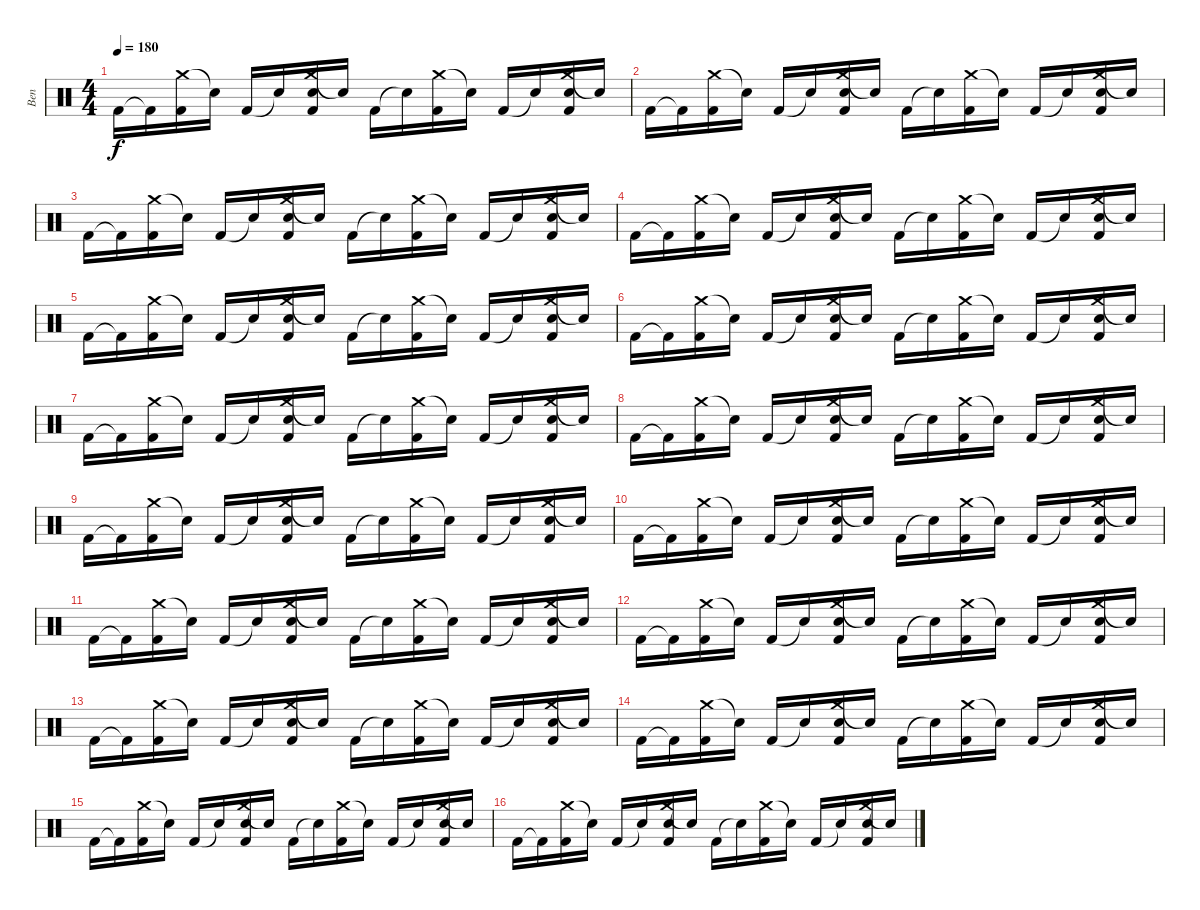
\track ("Ben" "Ben") {instrument percussion}
\staff {score}
\articulation defaults
\ts (4 4)
\tempo 180
\clef neutral
\ks c "Kick (hit) 2".16{dy f} "Kick (hit) 2"{t}.16
("Crash medium (hit)" "Kick (hit) 2").16 "Snare (hit)"{t}.16 "Kick (hit) 2".16 "Snare (hit)"{t}.16 ("Crash medium (hit)" "Electric Snare (hit)" "Kick (hit) 2").16 "Snare (hit)"{t}.16 "Kick (hit) 2".16 "Snare (hit)"{t}.16 ("Crash medium (hit)" "Kick (hit) 2").16 "Snare (hit)"{t}.16 "Kick (hit) 2".16 "Snare (hit)"{t}.16 ("Crash medium (hit)" "Electric Snare (hit)" "Kick (hit) 2").16 "Snare (hit)"{t}.16 |
"Kick (hit) 2".16 "Kick (hit) 2"{t}.16 ("Crash medium (hit)" "Kick (hit) 2").16 "Snare (hit)"{t}.16 "Kick (hit) 2".16 "Snare (hit)"{t}.16 ("Crash medium (hit)" "Electric Snare (hit)" "Kick (hit) 2").16 "Snare (hit)"{t}.16 "Kick (hit) 2".16 "Snare (hit)"{t}.16 ("Crash medium (hit)" "Kick (hit) 2").16 "Snare (hit)"{t}.16 "Kick (hit) 2".16 "Snare (hit)"{t}.16 ("Crash medium (hit)" "Electric Snare (hit)" "Kick (hit) 2").16 "Snare (hit)"{t}.16 |
"Kick (hit) 2".16 "Kick (hit) 2"{t}.16 ("Crash medium (hit)" "Kick (hit) 2").16 "Snare (hit)"{t}.16 "Kick (hit) 2".16 "Snare (hit)"{t}.16 ("Crash medium (hit)" "Electric Snare (hit)" "Kick (hit) 2").16 "Snare (hit)"{t}.16 "Kick (hit) 2".16 "Snare (hit)"{t}.16 ("Crash medium (hit)" "Kick (hit) 2").16 "Snare (hit)"{t}.16 "Kick (hit) 2".16 "Snare (hit)"{t}.16 ("Crash medium (hit)" "Electric Snare (hit)" "Kick (hit) 2").16 "Snare (hit)"{t}.16 |
"Kick (hit) 2".16 "Kick (hit) 2"{t}.16 ("Crash medium (hit)" "Kick (hit) 2").16 "Snare (hit)"{t}.16 "Kick (hit) 2".16 "Snare (hit)"{t}.16 ("Crash medium (hit)" "Electric Snare (hit)" "Kick (hit) 2").16 "Snare (hit)"{t}.16 "Kick (hit) 2".16 "Snare (hit)"{t}.16 ("Crash medium (hit)" "Kick (hit) 2").16 "Snare (hit)"{t}.16 "Kick (hit) 2".16 "Snare (hit)"{t}.16 ("Crash medium (hit)" "Electric Snare (hit)" "Kick (hit) 2").16 "Snare (hit)"{t}.16 |
"Kick (hit) 2".16 "Kick (hit) 2"{t}.16 ("Crash medium (hit)" "Kick (hit) 2").16 "Snare (hit)"{t}.16 "Kick (hit) 2".16 "Snare (hit)"{t}.16 ("Crash medium (hit)" "Electric Snare (hit)" "Kick (hit) 2").16 "Snare (hit)"{t}.16 "Kick (hit) 2".16 "Snare (hit)"{t}.16 ("Crash medium (hit)" "Kick (hit) 2").16 "Snare (hit)"{t}.16 "Kick (hit) 2".16 "Snare (hit)"{t}.16 ("Crash medium (hit)" "Electric Snare (hit)" "Kick (hit) 2").16 "Snare (hit)"{t}.16 |
"Kick (hit) 2".16 "Kick (hit) 2"{t}.16 ("Crash medium (hit)" "Kick (hit) 2").16 "Snare (hit)"{t}.16 "Kick (hit) 2".16 "Snare (hit)"{t}.16 ("Crash medium (hit)" "Electric Snare (hit)" "Kick (hit) 2").16 "Snare (hit)"{t}.16 "Kick (hit) 2".16 "Snare (hit)"{t}.16 ("Crash medium (hit)" "Kick (hit) 2").16 "Snare (hit)"{t}.16 "Kick (hit) 2".16 "Snare (hit)"{t}.16 ("Crash medium (hit)" "Electric Snare (hit)" "Kick (hit) 2").16 "Snare (hit)"{t}.16 |
"Kick (hit) 2".16 "Kick (hit) 2"{t}.16 ("Crash medium (hit)" "Kick (hit) 2").16 "Snare (hit)"{t}.16 "Kick (hit) 2".16 "Snare (hit)"{t}.16 ("Crash medium (hit)" "Electric Snare (hit)" "Kick (hit) 2").16 "Snare (hit)"{t}.16 "Kick (hit) 2".16 "Snare (hit)"{t}.16 ("Crash medium (hit)" "Kick (hit) 2").16 "Snare (hit)"{t}.16 "Kick (hit) 2".16 "Snare (hit)"{t}.16 ("Crash medium (hit)" "Electric Snare (hit)" "Kick (hit) 2").16 "Snare (hit)"{t}.16 |
"Kick (hit) 2".16 "Kick (hit) 2"{t}.16 ("Crash medium (hit)" "Kick (hit) 2").16 "Snare (hit)"{t}.16 "Kick (hit) 2".16 "Snare (hit)"{t}.16 ("Crash medium (hit)" "Electric Snare (hit)" "Kick (hit) 2").16 "Snare (hit)"{t}.16 "Kick (hit) 2".16 "Snare (hit)"{t}.16 ("Crash medium (hit)" "Kick (hit) 2").16 "Snare (hit)"{t}.16 "Kick (hit) 2".16 "Snare (hit)"{t}.16 ("Crash medium (hit)" "Electric Snare (hit)" "Kick (hit) 2").16 "Snare (hit)"{t}.16 |
"Kick (hit) 2".16 "Kick (hit) 2"{t}.16 ("Crash medium (hit)" "Kick (hit) 2").16 "Snare (hit)"{t}.16 "Kick (hit) 2".16 "Snare (hit)"{t}.16 ("Crash medium (hit)" "Electric Snare (hit)" "Kick (hit) 2").16 "Snare (hit)"{t}.16 "Kick (hit) 2".16 "Snare (hit)"{t}.16 ("Crash medium (hit)" "Kick (hit) 2").16 "Snare (hit)"{t}.16 "Kick (hit) 2".16 "Snare (hit)"{t}.16 ("Crash medium (hit)" "Electric Snare (hit)" "Kick (hit) 2").16 "Snare (hit)"{t}.16 |
"Kick (hit) 2".16 "Kick (hit) 2"{t}.16 ("Crash medium (hit)" "Kick (hit) 2").16 "Snare (hit)"{t}.16 "Kick (hit) 2".16 "Snare (hit)"{t}.16 ("Crash medium (hit)" "Electric Snare (hit)" "Kick (hit) 2").16 "Snare (hit)"{t}.16 "Kick (hit) 2".16 "Snare (hit)"{t}.16 ("Crash medium (hit)" "Kick (hit) 2").16 "Snare (hit)"{t}.16 "Kick (hit) 2".16 "Snare (hit)"{t}.16 ("Crash medium (hit)" "Electric Snare (hit)" "Kick (hit) 2").16 "Snare (hit)"{t}.16 |
"Kick (hit) 2".16 "Kick (hit) 2"{t}.16 ("Crash medium (hit)" "Kick (hit) 2").16 "Snare (hit)"{t}.16 "Kick (hit) 2".16 "Snare (hit)"{t}.16 ("Crash medium (hit)" "Electric Snare (hit)" "Kick (hit) 2").16 "Snare (hit)"{t}.16 "Kick (hit) 2".16 "Snare (hit)"{t}.16 ("Crash medium (hit)" "Kick (hit) 2").16 "Snare (hit)"{t}.16 "Kick (hit) 2".16 "Snare (hit)"{t}.16 ("Crash medium (hit)" "Electric Snare (hit)" "Kick (hit) 2").16 "Snare (hit)"{t}.16 |
"Kick (hit) 2".16 "Kick (hit) 2"{t}.16 ("Crash medium (hit)" "Kick (hit) 2").16 "Snare (hit)"{t}.16 "Kick (hit) 2".16 "Snare (hit)"{t}.16 ("Crash medium (hit)" "Electric Snare (hit)" "Kick (hit) 2").16 "Snare (hit)"{t}.16 "Kick (hit) 2".16 "Snare (hit)"{t}.16 ("Crash medium (hit)" "Kick (hit) 2").16 "Snare (hit)"{t}.16 "Kick (hit) 2".16 "Snare (hit)"{t}.16 ("Crash medium (hit)" "Electric Snare (hit)" "Kick (hit) 2").16 "Snare (hit)"{t}.16 |
"Kick (hit) 2".16 "Kick (hit) 2"{t}.16 ("Crash medium (hit)" "Kick (hit) 2").16 "Snare (hit)"{t}.16 "Kick (hit) 2".16 "Snare (hit)"{t}.16 ("Crash medium (hit)" "Electric Snare (hit)" "Kick (hit) 2").16 "Snare (hit)"{t}.16 "Kick (hit) 2".16 "Snare (hit)"{t}.16 ("Crash medium (hit)" "Kick (hit) 2").16 "Snare (hit)"{t}.16 "Kick (hit) 2".16 "Snare (hit)"{t}.16 ("Crash medium (hit)" "Electric Snare (hit)" "Kick (hit) 2").16 "Snare (hit)"{t}.16 |
"Kick (hit) 2".16 "Kick (hit) 2"{t}.16 ("Crash medium (hit)" "Kick (hit) 2").16 "Snare (hit)"{t}.16 "Kick (hit) 2".16 "Snare (hit)"{t}.16 ("Crash medium (hit)" "Electric Snare (hit)" "Kick (hit) 2").16 "Snare (hit)"{t}.16 "Kick (hit) 2".16 "Snare (hit)"{t}.16 ("Crash medium (hit)" "Kick (hit) 2").16 "Snare (hit)"{t}.16 "Kick (hit) 2".16 "Snare (hit)"{t}.16 ("Crash medium (hit)" "Electric Snare (hit)" "Kick (hit) 2").16 "Snare (hit)"{t}.16 |
"Kick (hit) 2".16 "Kick (hit) 2"{t}.16 ("Crash medium (hit)" "Kick (hit) 2").16 "Snare (hit)"{t}.16 "Kick (hit) 2".16 "Snare (hit)"{t}.16 ("Crash medium (hit)" "Electric Snare (hit)" "Kick (hit) 2").16 "Snare (hit)"{t}.16 "Kick (hit) 2".16 "Snare (hit)"{t}.16 ("Crash medium (hit)" "Kick (hit) 2").16 "Snare (hit)"{t}.16 "Kick (hit) 2".16 "Snare (hit)"{t}.16 ("Crash medium (hit)" "Electric Snare (hit)" "Kick (hit) 2").16 "Snare (hit)"{t}.16 |
"Kick (hit) 2".16 "Kick (hit) 2"{t}.16 ("Crash medium (hit)" "Kick (hit) 2").16 "Snare (hit)"{t}.16 "Kick (hit) 2".16 "Snare (hit)"{t}.16 ("Crash medium (hit)" "Electric Snare (hit)" "Kick (hit) 2").16 "Snare (hit)"{t}.16 "Kick (hit) 2".16 "Snare (hit)"{t}.16 ("Crash medium (hit)" "Kick (hit) 2").16 "Snare (hit)"{t}.16 "Kick (hit) 2".16 "Snare (hit)"{t}.16 ("Crash medium (hit)" "Electric Snare (hit)" "Kick (hit) 2").16 "Snare (hit)"{t}.16
